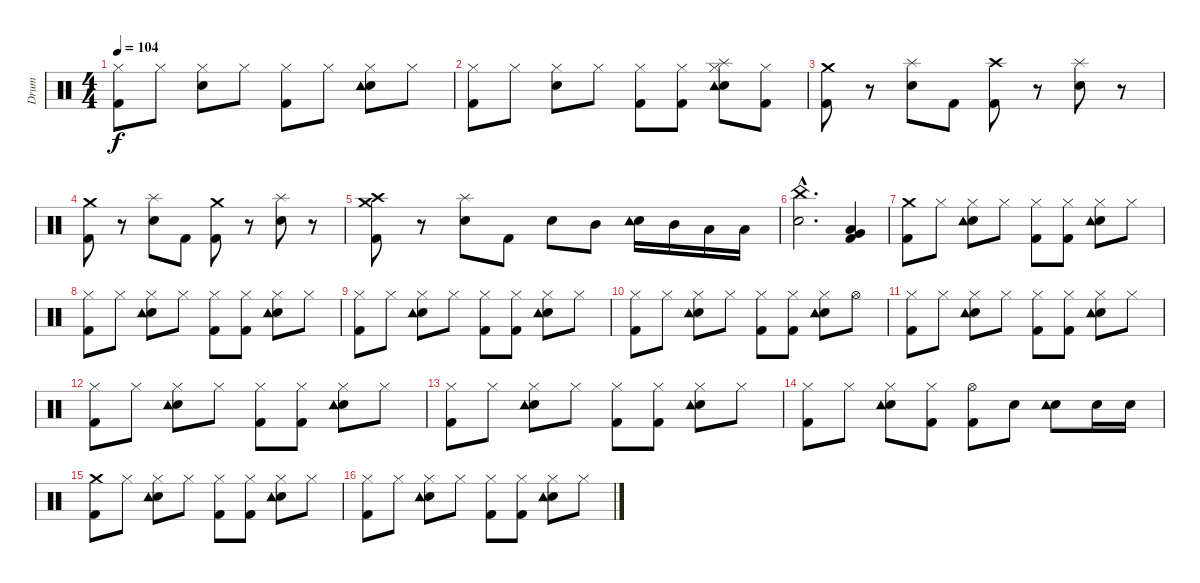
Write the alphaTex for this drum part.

\track ("Drum" "Drum") {instrument percussion}
\staff {score}
\articulation defaults
\ts (4 4)
\tempo 104
\clef neutral
\ks c
("Hi-Hat (closed)" "Kick (hit) 2").8{dy f} "Hi-Hat (closed)".8 ("Snare (hit) 2" "Hi-Hat (closed)").8 "Hi-Hat (closed)".8 ("Hi-Hat (closed)" "Kick (hit) 2").8 "Hi-Hat (closed)".8 ("Snare (hit) 2" "Hi-Hat (closed)" "Tambourine (hit)").8 "Hi-Hat (closed)".8 |
("Hi-Hat (closed)" "Kick (hit) 2").8 "Hi-Hat (closed)".8 ("Snare (hit) 2" "Hi-Hat (closed)").8 "Hi-Hat (closed)".8 ("Hi-Hat (closed)" "Kick (hit) 2").8 ("Hi-Hat (closed)" "Kick (hit) 2").8 ("Snare (hit) 2" "Hi-Hat (closed)" "Tambourine (hit)" "Splash (hit)").8 ("Hi-Hat (closed)" "Kick (hit) 2").8 |
("Crash medium (hit)" "Kick (hit) 2").8 r.8 ("Snare (hit) 2" "Splash (hit)").8 "Kick (hit) 2".8 ("Crash high (hit)" "Kick (hit) 2").8 r.8 ("Snare (hit) 2" "Splash (hit)").8 r.8 |
("Crash medium (hit)" "Kick (hit) 2").8 r.8 ("Snare (hit) 2" "Splash (hit)").8 "Kick (hit) 2".8 ("Crash medium (hit)" "Kick (hit) 2").8 r.8 ("Snare (hit) 2" "Splash (hit)").8 r.8 |
("Crash medium (hit)" "Crash high (hit)" "Kick (hit) 2").8 r.8 ("Snare (hit) 2" "Splash (hit)").8 "Kick (hit) 2".8 "Snare (hit) 2".8 "Mid Tom (hit)".8 ("Snare (hit) 2" "Tambourine (hit)").16 "Mid Tom (hit)".16 "Low Tom (hit)".16 "Low Tom (hit)".16 |
("Snare (hit) 2"{hac} "China (hit)"{hac}).2{d} ("Low Tom (hit)" "Very Low Tom (hit)" "Kick (hit) 2").4 |
("Crash medium (hit)" "Kick (hit) 2").8 "Hi-Hat (closed)".8 ("Snare (hit) 2" "Hi-Hat (closed)" "Tambourine (hit)").8 "Hi-Hat (closed)".8 ("Hi-Hat (closed)" "Kick (hit) 2").8 ("Hi-Hat (closed)" "Kick (hit) 2").8 ("Snare (hit) 2" "Hi-Hat (closed)" "Tambourine (hit)").8 "Hi-Hat (closed)".8 |
("Hi-Hat (closed)" "Kick (hit) 2").8 "Hi-Hat (closed)".8 ("Snare (hit) 2" "Hi-Hat (closed)" "Tambourine (hit)").8 "Hi-Hat (closed)".8 ("Hi-Hat (closed)" "Kick (hit) 2").8 ("Hi-Hat (closed)" "Kick (hit) 2").8 ("Snare (hit) 2" "Hi-Hat (closed)" "Tambourine (hit)").8 "Hi-Hat (closed)".8 |
("Hi-Hat (closed)" "Kick (hit) 2").8 "Hi-Hat (closed)".8 ("Snare (hit) 2" "Hi-Hat (closed)" "Tambourine (hit)").8 "Hi-Hat (closed)".8 ("Hi-Hat (closed)" "Kick (hit) 2").8 ("Hi-Hat (closed)" "Kick (hit) 2").8 ("Snare (hit) 2" "Hi-Hat (closed)" "Tambourine (hit)").8 "Hi-Hat (closed)".8 |
("Hi-Hat (closed)" "Kick (hit) 2").8 "Hi-Hat (closed)".8 ("Snare (hit) 2" "Hi-Hat (closed)" "Tambourine (hit)").8 "Hi-Hat (closed)".8 ("Hi-Hat (closed)" "Kick (hit) 2").8 ("Hi-Hat (closed)" "Kick (hit) 2").8 ("Snare (hit) 2" "Hi-Hat (closed)" "Tambourine (hit)").8 "Hi-Hat (open)".8 |
("Hi-Hat (closed)" "Kick (hit) 2").8 "Hi-Hat (closed)".8 ("Snare (hit) 2" "Hi-Hat (closed)" "Tambourine (hit)").8 "Hi-Hat (closed)".8 ("Hi-Hat (closed)" "Kick (hit) 2").8 ("Hi-Hat (closed)" "Kick (hit) 2").8 ("Snare (hit) 2" "Hi-Hat (closed)" "Tambourine (hit)").8 "Hi-Hat (closed)".8 |
("Hi-Hat (closed)" "Kick (hit) 2").8 "Hi-Hat (closed)".8 ("Snare (hit) 2" "Hi-Hat (closed)" "Tambourine (hit)").8 "Hi-Hat (closed)".8 ("Hi-Hat (closed)" "Kick (hit) 2").8 ("Hi-Hat (closed)" "Kick (hit) 2").8 ("Snare (hit) 2" "Hi-Hat (closed)" "Tambourine (hit)").8 "Hi-Hat (closed)".8 |
("Hi-Hat (closed)" "Kick (hit) 2").8 "Hi-Hat (closed)".8 ("Snare (hit) 2" "Hi-Hat (closed)" "Tambourine (hit)").8 "Hi-Hat (closed)".8 ("Hi-Hat (closed)" "Kick (hit) 2").8 ("Hi-Hat (closed)" "Kick (hit) 2").8 ("Snare (hit) 2" "Hi-Hat (closed)" "Tambourine (hit)").8 "Hi-Hat (closed)".8 |
("Hi-Hat (closed)" "Kick (hit) 2").8 "Hi-Hat (closed)".8 ("Snare (hit) 2" "Hi-Hat (closed)" "Tambourine (hit)").8 ("Hi-Hat (closed)" "Kick (hit) 2").8 ("Hi-Hat (open)" "Kick (hit) 2").8 "Snare (hit) 2".8 ("Snare (hit) 2" "Tambourine (hit)").8 "Snare (hit) 2".16 "Snare (hit) 2".16 |
("Crash medium (hit)" "Kick (hit) 2").8 "Hi-Hat (closed)".8 ("Snare (hit) 2" "Hi-Hat (closed)" "Tambourine (hit)").8 "Hi-Hat (closed)".8 ("Hi-Hat (closed)" "Kick (hit) 2").8 ("Hi-Hat (closed)" "Kick (hit) 2").8 ("Snare (hit) 2" "Hi-Hat (closed)" "Tambourine (hit)").8 "Hi-Hat (closed)".8 |
("Hi-Hat (closed)" "Kick (hit) 2").8 "Hi-Hat (closed)".8 ("Snare (hit) 2" "Hi-Hat (closed)" "Tambourine (hit)").8 "Hi-Hat (closed)".8 ("Hi-Hat (closed)" "Kick (hit) 2").8 ("Hi-Hat (closed)" "Kick (hit) 2").8 ("Snare (hit) 2" "Hi-Hat (closed)" "Tambourine (hit)").8 "Hi-Hat (closed)".8
